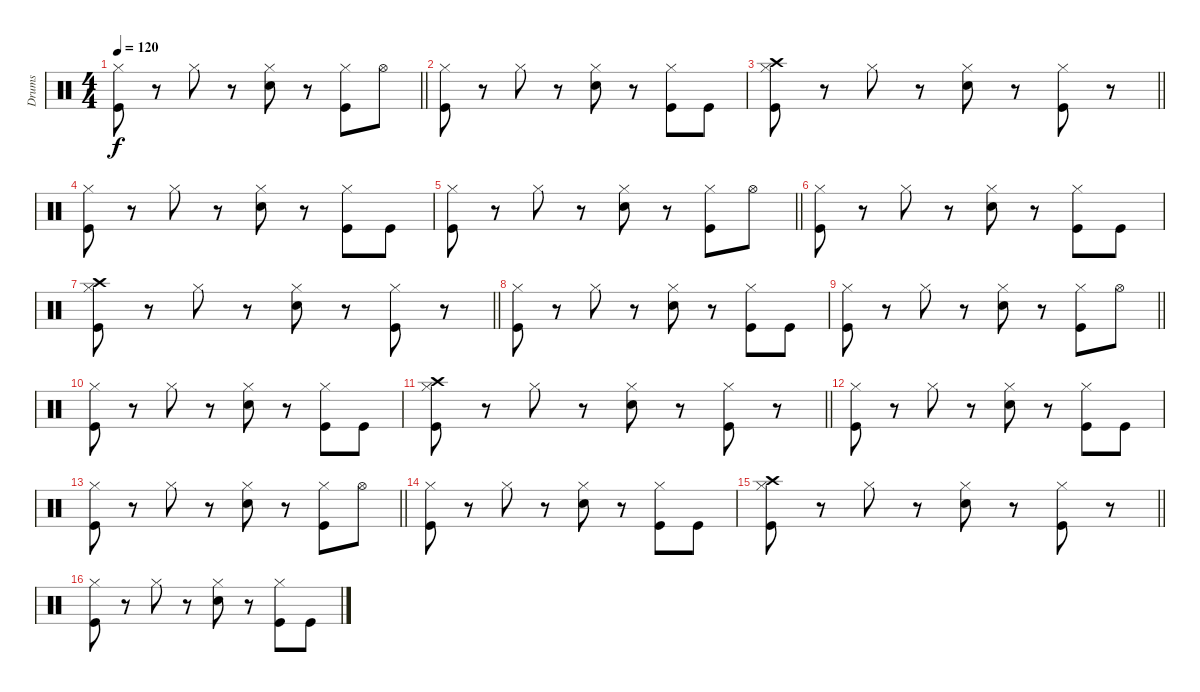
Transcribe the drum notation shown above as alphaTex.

\track ("Drums" "Drums") {instrument percussion}
\staff {score}
\articulation defaults
\ts (4 4)
\tempo 120
\clef neutral
\barLineRight lightlight
\ks c
("Hi-Hat (closed)" "Kick (hit)").8{dy f} r.8 "Hi-Hat (closed)".8 r.8 ("Hi-Hat (closed)" "Snare (hit) 2").8 r.8 ("Hi-Hat (closed)" "Kick (hit)").8 "Hi-Hat (open)".8 |
("Hi-Hat (closed)" "Kick (hit)").8 r.8 "Hi-Hat (closed)".8 r.8 ("Hi-Hat (closed)" "Snare (hit) 2").8 r.8 ("Hi-Hat (closed)" "Kick (hit)").8 "Kick (hit)".8 |
\barLineRight lightlight
("Crash high (hit)" "Hi-Hat (closed)" "Kick (hit)").8 r.8 "Hi-Hat (closed)".8 r.8 ("Hi-Hat (closed)" "Snare (hit) 2").8 r.8 ("Hi-Hat (closed)" "Kick (hit)").8 r.8 |
("Hi-Hat (closed)" "Kick (hit)").8 r.8 "Hi-Hat (closed)".8 r.8 ("Hi-Hat (closed)" "Snare (hit) 2").8 r.8 ("Hi-Hat (closed)" "Kick (hit)").8 "Kick (hit)".8 |
\barLineRight lightlight
("Hi-Hat (closed)" "Kick (hit)").8 r.8 "Hi-Hat (closed)".8 r.8 ("Hi-Hat (closed)" "Snare (hit) 2").8 r.8 ("Hi-Hat (closed)" "Kick (hit)").8 "Hi-Hat (open)".8 |
("Hi-Hat (closed)" "Kick (hit)").8 r.8 "Hi-Hat (closed)".8 r.8 ("Hi-Hat (closed)" "Snare (hit) 2").8 r.8 ("Hi-Hat (closed)" "Kick (hit)").8 "Kick (hit)".8 |
\barLineRight lightlight
("Crash high (hit)" "Hi-Hat (closed)" "Kick (hit)").8 r.8 "Hi-Hat (closed)".8 r.8 ("Hi-Hat (closed)" "Snare (hit) 2").8 r.8 ("Hi-Hat (closed)" "Kick (hit)").8 r.8 |
("Hi-Hat (closed)" "Kick (hit)").8 r.8 "Hi-Hat (closed)".8 r.8 ("Hi-Hat (closed)" "Snare (hit) 2").8 r.8 ("Hi-Hat (closed)" "Kick (hit)").8 "Kick (hit)".8 |
\barLineRight lightlight
("Hi-Hat (closed)" "Kick (hit)").8 r.8 "Hi-Hat (closed)".8 r.8 ("Hi-Hat (closed)" "Snare (hit) 2").8 r.8 ("Hi-Hat (closed)" "Kick (hit)").8 "Hi-Hat (open)".8 |
("Hi-Hat (closed)" "Kick (hit)").8 r.8 "Hi-Hat (closed)".8 r.8 ("Hi-Hat (closed)" "Snare (hit) 2").8 r.8 ("Hi-Hat (closed)" "Kick (hit)").8 "Kick (hit)".8 |
\barLineRight lightlight
("Crash high (hit)" "Hi-Hat (closed)" "Kick (hit)").8 r.8 "Hi-Hat (closed)".8 r.8 ("Hi-Hat (closed)" "Snare (hit) 2").8 r.8 ("Hi-Hat (closed)" "Kick (hit)").8 r.8 |
("Hi-Hat (closed)" "Kick (hit)").8 r.8 "Hi-Hat (closed)".8 r.8 ("Hi-Hat (closed)" "Snare (hit) 2").8 r.8 ("Hi-Hat (closed)" "Kick (hit)").8 "Kick (hit)".8 |
\barLineRight lightlight
("Hi-Hat (closed)" "Kick (hit)").8 r.8 "Hi-Hat (closed)".8 r.8 ("Hi-Hat (closed)" "Snare (hit) 2").8 r.8 ("Hi-Hat (closed)" "Kick (hit)").8 "Hi-Hat (open)".8 |
("Hi-Hat (closed)" "Kick (hit)").8 r.8 "Hi-Hat (closed)".8 r.8 ("Hi-Hat (closed)" "Snare (hit) 2").8 r.8 ("Hi-Hat (closed)" "Kick (hit)").8 "Kick (hit)".8 |
\barLineRight lightlight
("Crash high (hit)" "Hi-Hat (closed)" "Kick (hit)").8 r.8 "Hi-Hat (closed)".8 r.8 ("Hi-Hat (closed)" "Snare (hit) 2").8 r.8 ("Hi-Hat (closed)" "Kick (hit)").8 r.8 |
("Hi-Hat (closed)" "Kick (hit)").8 r.8 "Hi-Hat (closed)".8 r.8 ("Hi-Hat (closed)" "Snare (hit) 2").8 r.8 ("Hi-Hat (closed)" "Kick (hit)").8 "Kick (hit)".8
